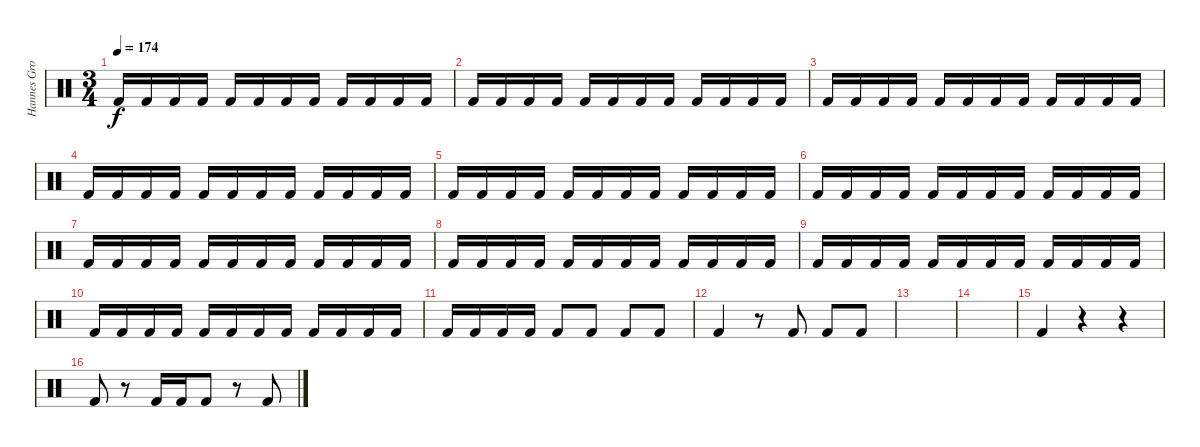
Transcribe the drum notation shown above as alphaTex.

\track ("Hannes Grossmann" "Hannes Gro") {instrument percussion}
\staff {score}
\articulation defaults
\ts (3 4)
\tempo 174
\clef neutral
\ks c "Kick (hit) 2".16{dy f} "Kick (hit) 2".16 "Kick (hit) 2".16 "Kick (hit) 2".16 "Kick (hit) 2".16 "Kick (hit) 2".16 "Kick (hit) 2".16 "Kick (hit) 2".16 "Kick (hit) 2".16 "Kick (hit) 2".16 "Kick (hit) 2".16 "Kick (hit) 2".16
|
"Kick (hit) 2".16 "Kick (hit) 2".16 "Kick (hit) 2".16 "Kick (hit) 2".16 "Kick (hit) 2".16 "Kick (hit) 2".16 "Kick (hit) 2".16 "Kick (hit) 2".16 "Kick (hit) 2".16 "Kick (hit) 2".16 "Kick (hit) 2".16 "Kick (hit) 2".16 |
"Kick (hit) 2".16 "Kick (hit) 2".16 "Kick (hit) 2".16 "Kick (hit) 2".16 "Kick (hit) 2".16 "Kick (hit) 2".16 "Kick (hit) 2".16 "Kick (hit) 2".16 "Kick (hit) 2".16 "Kick (hit) 2".16 "Kick (hit) 2".16 "Kick (hit) 2".16 |
"Kick (hit) 2".16 "Kick (hit) 2".16 "Kick (hit) 2".16 "Kick (hit) 2".16 "Kick (hit) 2".16 "Kick (hit) 2".16 "Kick (hit) 2".16 "Kick (hit) 2".16 "Kick (hit) 2".16 "Kick (hit) 2".16 "Kick (hit) 2".16 "Kick (hit) 2".16 |
"Kick (hit) 2".16 "Kick (hit) 2".16 "Kick (hit) 2".16 "Kick (hit) 2".16 "Kick (hit) 2".16 "Kick (hit) 2".16 "Kick (hit) 2".16 "Kick (hit) 2".16 "Kick (hit) 2".16 "Kick (hit) 2".16 "Kick (hit) 2".16 "Kick (hit) 2".16 |
"Kick (hit) 2".16 "Kick (hit) 2".16 "Kick (hit) 2".16 "Kick (hit) 2".16 "Kick (hit) 2".16 "Kick (hit) 2".16 "Kick (hit) 2".16 "Kick (hit) 2".16 "Kick (hit) 2".16 "Kick (hit) 2".16 "Kick (hit) 2".16 "Kick (hit) 2".16 |
"Kick (hit) 2".16 "Kick (hit) 2".16 "Kick (hit) 2".16 "Kick (hit) 2".16 "Kick (hit) 2".16 "Kick (hit) 2".16 "Kick (hit) 2".16 "Kick (hit) 2".16 "Kick (hit) 2".16 "Kick (hit) 2".16 "Kick (hit) 2".16 "Kick (hit) 2".16 |
"Kick (hit) 2".16 "Kick (hit) 2".16 "Kick (hit) 2".16 "Kick (hit) 2".16 "Kick (hit) 2".16 "Kick (hit) 2".16 "Kick (hit) 2".16 "Kick (hit) 2".16 "Kick (hit) 2".16 "Kick (hit) 2".16 "Kick (hit) 2".16 "Kick (hit) 2".16 |
"Kick (hit) 2".16 "Kick (hit) 2".16 "Kick (hit) 2".16 "Kick (hit) 2".16 "Kick (hit) 2".16 "Kick (hit) 2".16 "Kick (hit) 2".16 "Kick (hit) 2".16 "Kick (hit) 2".16 "Kick (hit) 2".16 "Kick (hit) 2".16 "Kick (hit) 2".16 |
"Kick (hit) 2".16 "Kick (hit) 2".16 "Kick (hit) 2".16 "Kick (hit) 2".16 "Kick (hit) 2".16 "Kick (hit) 2".16 "Kick (hit) 2".16 "Kick (hit) 2".16 "Kick (hit) 2".16 "Kick (hit) 2".16 "Kick (hit) 2".16 "Kick (hit) 2".16 |
"Kick (hit) 2".16 "Kick (hit) 2".16 "Kick (hit) 2".16 "Kick (hit) 2".16 "Kick (hit) 2".8 "Kick (hit) 2".8 "Kick (hit) 2".8 "Kick (hit) 2".8 |
"Kick (hit) 2".4 r.8 "Kick (hit) 2".8 "Kick (hit) 2".8 "Kick (hit) 2".8 |
|
|
"Kick (hit) 2".4 r.4 r.4 |
"Kick (hit) 2".8 r.8 "Kick (hit) 2".16 "Kick (hit) 2".16 "Kick (hit) 2".8 r.8 "Kick (hit) 2".8
